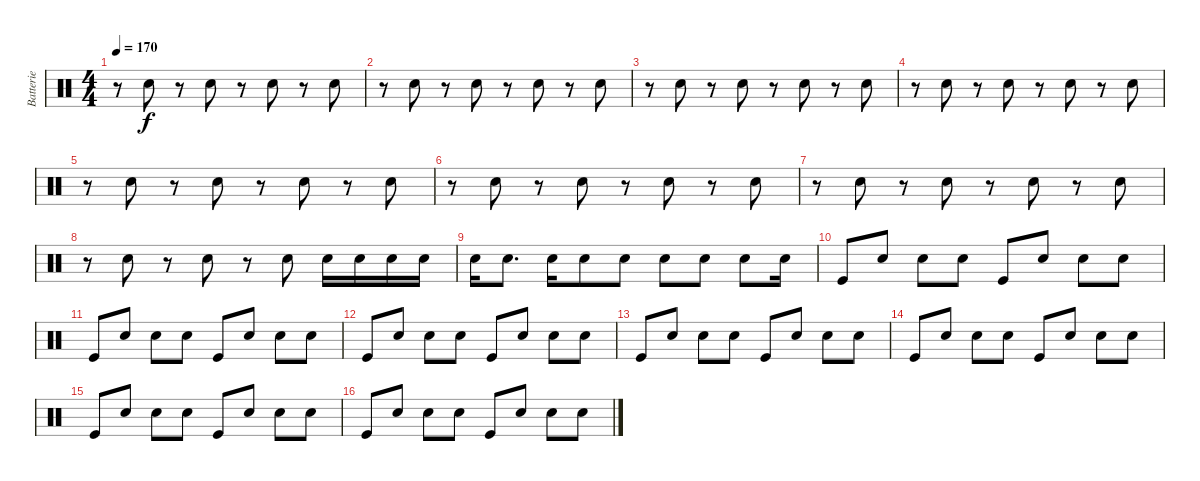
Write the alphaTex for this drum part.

\track ("Batterie" "Batterie") {instrument percussion}
\staff {score}
\articulation defaults
\ts (4 4)
\tempo 170
\clef neutral
\ks c
r.8{dy f} "Snare (hit) 2".8 r.8 "Snare (hit) 2".8 r.8 "Snare (hit) 2".8 r.8 "Snare (hit) 2".8 |
r.8 "Snare (hit) 2".8 r.8 "Snare (hit) 2".8 r.8 "Snare (hit) 2".8 r.8 "Snare (hit) 2".8 |
r.8 "Snare (hit) 2".8 r.8 "Snare (hit) 2".8 r.8 "Snare (hit) 2".8 r.8 "Snare (hit) 2".8 |
r.8 "Snare (hit) 2".8 r.8 "Snare (hit) 2".8 r.8 "Snare (hit) 2".8 r.8 "Snare (hit) 2".8 |
r.8 "Snare (hit) 2".8 r.8 "Snare (hit) 2".8 r.8 "Snare (hit) 2".8 r.8 "Snare (hit) 2".8 |
r.8 "Snare (hit) 2".8 r.8 "Snare (hit) 2".8 r.8 "Snare (hit) 2".8 r.8 "Snare (hit) 2".8 |
r.8 "Snare (hit) 2".8 r.8 "Snare (hit) 2".8 r.8 "Snare (hit) 2".8 r.8 "Snare (hit) 2".8 |
r.8 "Snare (hit) 2".8 r.8 "Snare (hit) 2".8 r.8 "Snare (hit) 2".8 "Snare (hit) 2".16 "Snare (hit) 2".16 "Snare (hit) 2".16 "Snare (hit) 2".16 |
"Snare (hit) 2".16 "Snare (hit) 2".8{d} "Snare (hit) 2".16 "Snare (hit) 2".8 "Snare (hit) 2".8 "Snare (hit) 2".8 "Snare (hit) 2".8 "Snare (hit) 2".8 "Snare (hit) 2".16 |
"Kick (hit)".8 "Hand Clap (hit)".8 "Snare (hit) 2".8 "Hand Clap (hit)".8 "Kick (hit)".8 "Hand Clap (hit)".8 "Snare (hit) 2".8 "Hand Clap (hit)".8 |
"Kick (hit)".8 "Hand Clap (hit)".8 "Snare (hit) 2".8 "Hand Clap (hit)".8 "Kick (hit)".8 "Hand Clap (hit)".8 "Snare (hit) 2".8 "Hand Clap (hit)".8 |
"Kick (hit)".8 "Hand Clap (hit)".8 "Snare (hit) 2".8 "Hand Clap (hit)".8 "Kick (hit)".8 "Hand Clap (hit)".8 "Snare (hit) 2".8 "Hand Clap (hit)".8 |
"Kick (hit)".8 "Hand Clap (hit)".8 "Snare (hit) 2".8 "Hand Clap (hit)".8 "Kick (hit)".8 "Hand Clap (hit)".8 "Snare (hit) 2".8 "Hand Clap (hit)".8 |
"Kick (hit)".8 "Hand Clap (hit)".8 "Snare (hit) 2".8 "Hand Clap (hit)".8 "Kick (hit)".8 "Hand Clap (hit)".8 "Snare (hit) 2".8 "Hand Clap (hit)".8 |
"Kick (hit)".8 "Hand Clap (hit)".8 "Snare (hit) 2".8 "Hand Clap (hit)".8 "Kick (hit)".8 "Hand Clap (hit)".8 "Snare (hit) 2".8 "Hand Clap (hit)".8 |
"Kick (hit)".8 "Hand Clap (hit)".8 "Snare (hit) 2".8 "Hand Clap (hit)".8 "Kick (hit)".8 "Hand Clap (hit)".8 "Snare (hit) 2".8 "Hand Clap (hit)".8
